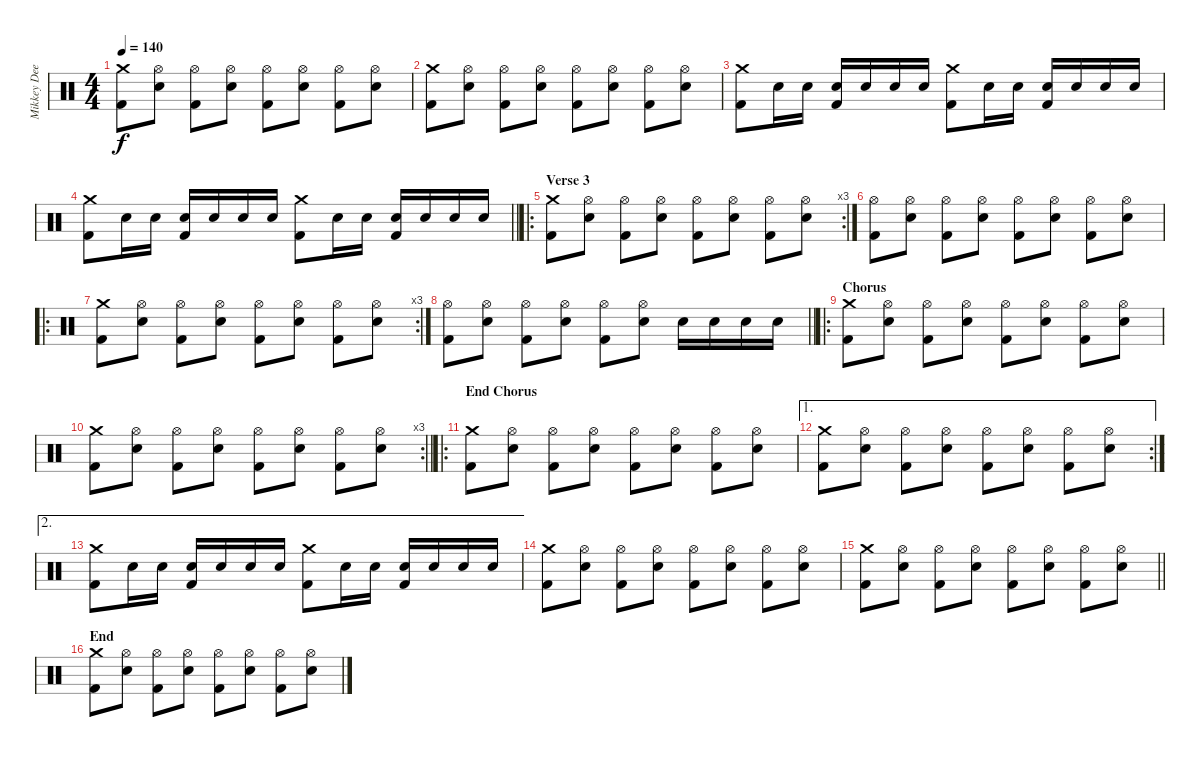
\track ("Mikkey Dee" "Mikkey Dee") {instrument percussion}
\staff {score}
\articulation defaults
\ts (4 4)
\tempo 140
\clef neutral
\ks c
("Crash medium (hit)" "Kick (hit) 2").8{dy f} ("Hi-Hat (open)" "Snare (hit) 2").8 ("Hi-Hat (open)" "Kick (hit) 2").8 ("Hi-Hat (open)" "Snare (hit) 2").8 ("Hi-Hat (open)" "Kick (hit) 2").8 ("Hi-Hat (open)" "Snare (hit) 2").8 ("Hi-Hat (open)" "Kick (hit) 2").8 ("Hi-Hat (open)" "Snare (hit) 2").8 |
("Crash medium (hit)" "Kick (hit) 2").8 ("Hi-Hat (open)" "Snare (hit) 2").8 ("Hi-Hat (open)" "Kick (hit) 2").8 ("Hi-Hat (open)" "Snare (hit) 2").8 ("Hi-Hat (open)" "Kick (hit) 2").8 ("Hi-Hat (open)" "Snare (hit) 2").8 ("Hi-Hat (open)" "Kick (hit) 2").8 ("Hi-Hat (open)" "Snare (hit) 2").8 |
("Crash medium (hit)" "Kick (hit) 2").8 "Electric Snare (hit)".16 "Electric Snare (hit)".16 ("Electric Snare (hit)" "Kick (hit) 2").16 "Electric Snare (hit)".16 "Electric Snare (hit)".16 "Electric Snare (hit)".16 ("Crash medium (hit)" "Kick (hit) 2").8 "Electric Snare (hit)".16 "Electric Snare (hit)".16 ("Electric Snare (hit)" "Kick (hit) 2").16 "Electric Snare (hit)".16 "Electric Snare (hit)".16 "Electric Snare (hit)".16 |
\barLineRight lightlight
("Crash medium (hit)" "Kick (hit) 2").8 "Electric Snare (hit)".16 "Electric Snare (hit)".16 ("Electric Snare (hit)" "Kick (hit) 2").16 "Electric Snare (hit)".16 "Electric Snare (hit)".16 "Electric Snare (hit)".16 ("Crash medium (hit)" "Kick (hit) 2").8 "Electric Snare (hit)".16 "Electric Snare (hit)".16 ("Electric Snare (hit)" "Kick (hit) 2").16 "Electric Snare (hit)".16 "Electric Snare (hit)".16 "Electric Snare (hit)".16 |
\ro
\rc 3
\section ("" "Verse 3")
("Crash medium (hit)" "Kick (hit) 2").8 ("Hi-Hat (open)" "Snare (hit) 2").8 ("Hi-Hat (open)" "Kick (hit) 2").8 ("Hi-Hat (open)" "Snare (hit) 2").8 ("Hi-Hat (open)" "Kick (hit) 2").8 ("Hi-Hat (open)" "Snare (hit) 2").8 ("Hi-Hat (open)" "Kick (hit) 2").8 ("Hi-Hat (open)" "Snare (hit) 2").8 |
("Hi-Hat (open)" "Kick (hit) 2").8 ("Hi-Hat (open)" "Snare (hit) 2").8 ("Hi-Hat (open)" "Kick (hit) 2").8 ("Hi-Hat (open)" "Snare (hit) 2").8 ("Hi-Hat (open)" "Kick (hit) 2").8 ("Hi-Hat (open)" "Snare (hit) 2").8 ("Hi-Hat (open)" "Kick (hit) 2").8 ("Hi-Hat (open)" "Snare (hit) 2").8 |
\ro
\rc 3
("Crash medium (hit)" "Kick (hit) 2").8 ("Hi-Hat (open)" "Snare (hit) 2").8 ("Hi-Hat (open)" "Kick (hit) 2").8 ("Hi-Hat (open)" "Snare (hit) 2").8 ("Hi-Hat (open)" "Kick (hit) 2").8 ("Hi-Hat (open)" "Snare (hit) 2").8 ("Hi-Hat (open)" "Kick (hit) 2").8 ("Hi-Hat (open)" "Snare (hit) 2").8 |
\barLineRight lightlight
("Hi-Hat (open)" "Kick (hit) 2").8 ("Hi-Hat (open)" "Electric Snare (hit)").8 ("Hi-Hat (open)" "Kick (hit) 2").8 ("Hi-Hat (open)" "Electric Snare (hit)").8 ("Hi-Hat (open)" "Kick (hit) 2").8 ("Hi-Hat (open)" "Electric Snare (hit)").8 "Electric Snare (hit)".16 "Electric Snare (hit)".16 "Electric Snare (hit)".16 "Electric Snare (hit)".16 |
\ro
\section ("" "Chorus")
("Crash medium (hit)" "Kick (hit) 2").8 ("Hi-Hat (open)" "Snare (hit) 2").8 ("Hi-Hat (open)" "Kick (hit) 2").8 ("Hi-Hat (open)" "Snare (hit) 2").8 ("Hi-Hat (open)" "Kick (hit) 2").8 ("Hi-Hat (open)" "Snare (hit) 2").8 ("Hi-Hat (open)" "Kick (hit) 2").8 ("Hi-Hat (open)" "Snare (hit) 2").8 |
\rc 3
\barLineRight lightlight
("Crash medium (hit)" "Kick (hit) 2").8 ("Hi-Hat (open)" "Snare (hit) 2").8 ("Hi-Hat (open)" "Kick (hit) 2").8 ("Hi-Hat (open)" "Snare (hit) 2").8 ("Hi-Hat (open)" "Kick (hit) 2").8 ("Hi-Hat (open)" "Snare (hit) 2").8 ("Hi-Hat (open)" "Kick (hit) 2").8 ("Hi-Hat (open)" "Snare (hit) 2").8 |
\ro
\section ("" "End Chorus")
("Crash medium (hit)" "Kick (hit) 2").8 ("Hi-Hat (open)" "Snare (hit) 2").8 ("Hi-Hat (open)" "Kick (hit) 2").8 ("Hi-Hat (open)" "Snare (hit) 2").8 ("Hi-Hat (open)" "Kick (hit) 2").8 ("Hi-Hat (open)" "Snare (hit) 2").8 ("Hi-Hat (open)" "Kick (hit) 2").8 ("Hi-Hat (open)" "Snare (hit) 2").8 |
\ae 1
\rc 2
("Crash medium (hit)" "Kick (hit) 2").8 ("Hi-Hat (open)" "Snare (hit) 2").8 ("Hi-Hat (open)" "Kick (hit) 2").8 ("Hi-Hat (open)" "Snare (hit) 2").8 ("Hi-Hat (open)" "Kick (hit) 2").8 ("Hi-Hat (open)" "Snare (hit) 2").8 ("Hi-Hat (open)" "Kick (hit) 2").8 ("Hi-Hat (open)" "Snare (hit) 2").8 |
\ae 2
("Crash medium (hit)" "Kick (hit) 2").8 "Electric Snare (hit)".16 "Electric Snare (hit)".16 ("Electric Snare (hit)" "Kick (hit) 2").16 "Electric Snare (hit)".16 "Electric Snare (hit)".16 "Electric Snare (hit)".16 ("Crash medium (hit)" "Kick (hit) 2").8 "Electric Snare (hit)".16 "Electric Snare (hit)".16 ("Electric Snare (hit)" "Kick (hit) 2").16 "Electric Snare (hit)".16 "Electric Snare (hit)".16 "Electric Snare (hit)".16 |
("Crash medium (hit)" "Kick (hit) 2").8 ("Hi-Hat (open)" "Snare (hit) 2").8 ("Hi-Hat (open)" "Kick (hit) 2").8 ("Hi-Hat (open)" "Snare (hit) 2").8 ("Hi-Hat (open)" "Kick (hit) 2").8 ("Hi-Hat (open)" "Snare (hit) 2").8 ("Hi-Hat (open)" "Kick (hit) 2").8 ("Hi-Hat (open)" "Snare (hit) 2").8 |
\barLineRight lightlight
("Crash medium (hit)" "Kick (hit) 2").8 ("Hi-Hat (open)" "Snare (hit) 2").8 ("Hi-Hat (open)" "Kick (hit) 2").8 ("Hi-Hat (open)" "Snare (hit) 2").8 ("Hi-Hat (open)" "Kick (hit) 2").8 ("Hi-Hat (open)" "Snare (hit) 2").8 ("Hi-Hat (open)" "Kick (hit) 2").8 ("Hi-Hat (open)" "Snare (hit) 2").8 |
\section ("" "End")
("Crash medium (hit)" "Kick (hit) 2").8 ("Hi-Hat (open)" "Snare (hit) 2").8 ("Hi-Hat (open)" "Kick (hit) 2").8 ("Hi-Hat (open)" "Snare (hit) 2").8 ("Hi-Hat (open)" "Kick (hit) 2").8 ("Hi-Hat (open)" "Snare (hit) 2").8 ("Hi-Hat (open)" "Kick (hit) 2").8 ("Hi-Hat (open)" "Snare (hit) 2").8
